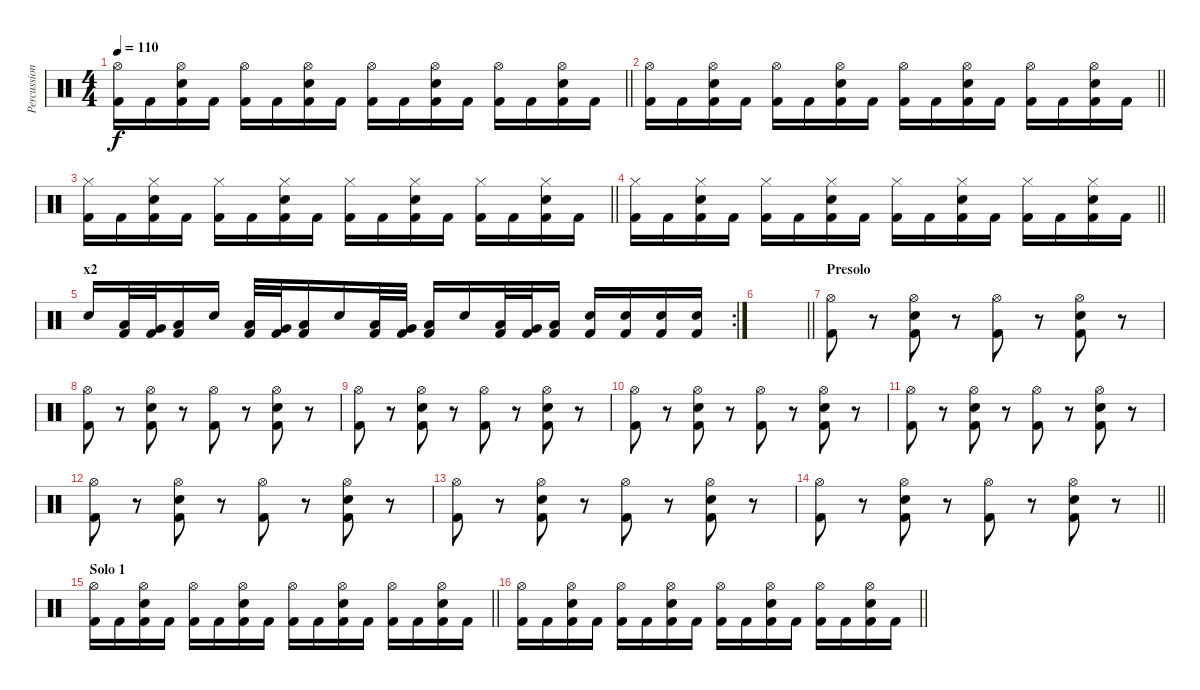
\track ("Percussion" "Percussion") {instrument percussion}
\staff {score}
\articulation defaults
\ts (4 4)
\tempo 110
\clef neutral
\barLineRight lightlight
\ks c
("Hi-Hat (open)" "Kick (hit) 2").16{dy f} "Kick (hit) 2".16 ("Hi-Hat (open)" "Electric Snare (hit)" "Kick (hit) 2").16 "Kick (hit) 2".16 ("Hi-Hat (open)" "Kick (hit) 2").16 "Kick (hit) 2".16 ("Hi-Hat (open)" "Electric Snare (hit)" "Kick (hit) 2").16 "Kick (hit) 2".16 ("Hi-Hat (open)" "Kick (hit) 2").16 "Kick (hit) 2".16 ("Hi-Hat (open)" "Electric Snare (hit)" "Kick (hit) 2").16 "Kick (hit) 2".16 ("Hi-Hat (open)" "Kick (hit) 2").16 "Kick (hit) 2".16 ("Hi-Hat (open)" "Electric Snare (hit)" "Kick (hit) 2").16 "Kick (hit) 2".16 |
\barLineRight lightlight
("Hi-Hat (open)" "Kick (hit) 2").16 "Kick (hit) 2".16 ("Hi-Hat (open)" "Electric Snare (hit)" "Kick (hit) 2").16 "Kick (hit) 2".16 ("Hi-Hat (open)" "Kick (hit) 2").16 "Kick (hit) 2".16 ("Hi-Hat (open)" "Electric Snare (hit)" "Kick (hit) 2").16 "Kick (hit) 2".16 ("Hi-Hat (open)" "Kick (hit) 2").16 "Kick (hit) 2".16 ("Hi-Hat (open)" "Electric Snare (hit)" "Kick (hit) 2").16 "Kick (hit) 2".16 ("Hi-Hat (open)" "Kick (hit) 2").16 "Kick (hit) 2".16 ("Hi-Hat (open)" "Electric Snare (hit)" "Kick (hit) 2").16 "Kick (hit) 2".16 |
\barLineRight lightlight
("Hi-Hat (closed)" "Kick (hit) 2").16 "Kick (hit) 2".16 ("Hi-Hat (closed)" "Electric Snare (hit)" "Kick (hit) 2").16 "Kick (hit) 2".16 ("Hi-Hat (closed)" "Kick (hit) 2").16 "Kick (hit) 2".16 ("Hi-Hat (closed)" "Electric Snare (hit)" "Kick (hit) 2").16 "Kick (hit) 2".16 ("Hi-Hat (closed)" "Kick (hit) 2").16 "Kick (hit) 2".16 ("Hi-Hat (closed)" "Electric Snare (hit)" "Kick (hit) 2").16 "Kick (hit) 2".16 ("Hi-Hat (closed)" "Kick (hit) 2").16 "Kick (hit) 2".16 ("Hi-Hat (closed)" "Electric Snare (hit)" "Kick (hit) 2").16 "Kick (hit) 2".16 |
\barLineRight lightlight
("Hi-Hat (closed)" "Kick (hit) 2").16 "Kick (hit) 2".16 ("Hi-Hat (closed)" "Electric Snare (hit)" "Kick (hit) 2").16 "Kick (hit) 2".16 ("Hi-Hat (closed)" "Kick (hit) 2").16 "Kick (hit) 2".16 ("Hi-Hat (closed)" "Electric Snare (hit)" "Kick (hit) 2").16 "Kick (hit) 2".16 ("Hi-Hat (closed)" "Kick (hit) 2").16 "Kick (hit) 2".16 ("Hi-Hat (closed)" "Electric Snare (hit)" "Kick (hit) 2").16 "Kick (hit) 2".16 ("Hi-Hat (closed)" "Kick (hit) 2").16 "Kick (hit) 2".16 ("Hi-Hat (closed)" "Electric Snare (hit)" "Kick (hit) 2").16 "Kick (hit) 2".16 |
\rc 2
\section ("" "x2")
"Electric Snare (hit)".16 ("Low Tom (hit)" "Kick (hit) 2").32 ("Very Low Tom (hit)" "Kick (hit) 2").32 ("Low Floor Tom (hit)" "Kick (hit) 2").16 "Electric Snare (hit)".16 ("Low Tom (hit)" "Kick (hit) 2").32 ("Very Low Tom (hit)" "Kick (hit) 2").32 ("Low Floor Tom (hit)" "Kick (hit) 2").16 "Electric Snare (hit)".16 ("Low Tom (hit)" "Kick (hit) 2").32 ("Very Low Tom (hit)" "Kick (hit) 2").32 ("Low Floor Tom (hit)" "Kick (hit) 2").16 "Electric Snare (hit)".16 ("Low Tom (hit)" "Kick (hit) 2").32 ("Very Low Tom (hit)" "Kick (hit) 2").32 ("Low Floor Tom (hit)" "Kick (hit) 2").16 ("Electric Snare (hit)" "Kick (hit) 2").16 ("Electric Snare (hit)" "Kick (hit) 2").16 ("Electric Snare (hit)" "Kick (hit) 2").16 ("Electric Snare (hit)" "Kick (hit) 2").16 |
\barLineRight lightlight
|
\section ("" "Presolo")
("Hi-Hat (open)" "Kick (hit) 2").8 r.8 ("Hi-Hat (open)" "Electric Snare (hit)" "Kick (hit) 2").8 r.8 ("Hi-Hat (open)" "Kick (hit) 2").8 r.8 ("Hi-Hat (open)" "Electric Snare (hit)" "Kick (hit) 2").8 r.8 |
("Hi-Hat (open)" "Kick (hit) 2").8 r.8 ("Hi-Hat (open)" "Electric Snare (hit)" "Kick (hit) 2").8 r.8 ("Hi-Hat (open)" "Kick (hit) 2").8 r.8 ("Hi-Hat (open)" "Electric Snare (hit)" "Kick (hit) 2").8 r.8 |
("Hi-Hat (open)" "Kick (hit) 2").8 r.8 ("Hi-Hat (open)" "Electric Snare (hit)" "Kick (hit) 2").8 r.8 ("Hi-Hat (open)" "Kick (hit) 2").8 r.8 ("Hi-Hat (open)" "Electric Snare (hit)" "Kick (hit) 2").8 r.8 |
("Hi-Hat (open)" "Kick (hit) 2").8 r.8 ("Hi-Hat (open)" "Electric Snare (hit)" "Kick (hit) 2").8 r.8 ("Hi-Hat (open)" "Kick (hit) 2").8 r.8 ("Hi-Hat (open)" "Electric Snare (hit)" "Kick (hit) 2").8 r.8 |
("Hi-Hat (open)" "Kick (hit) 2").8 r.8 ("Hi-Hat (open)" "Electric Snare (hit)" "Kick (hit) 2").8 r.8 ("Hi-Hat (open)" "Kick (hit) 2").8 r.8 ("Hi-Hat (open)" "Electric Snare (hit)" "Kick (hit) 2").8 r.8 |
("Hi-Hat (open)" "Kick (hit) 2").8 r.8 ("Hi-Hat (open)" "Electric Snare (hit)" "Kick (hit) 2").8 r.8 ("Hi-Hat (open)" "Kick (hit) 2").8 r.8 ("Hi-Hat (open)" "Electric Snare (hit)" "Kick (hit) 2").8 r.8 |
("Hi-Hat (open)" "Kick (hit) 2").8 r.8 ("Hi-Hat (open)" "Electric Snare (hit)" "Kick (hit) 2").8 r.8 ("Hi-Hat (open)" "Kick (hit) 2").8 r.8 ("Hi-Hat (open)" "Electric Snare (hit)" "Kick (hit) 2").8 r.8 |
\barLineRight lightlight
("Hi-Hat (open)" "Kick (hit) 2").8 r.8 ("Hi-Hat (open)" "Electric Snare (hit)" "Kick (hit) 2").8 r.8 ("Hi-Hat (open)" "Kick (hit) 2").8 r.8 ("Hi-Hat (open)" "Electric Snare (hit)" "Kick (hit) 2").8 r.8 |
\section ("" "Solo 1")
\barLineRight lightlight
("Hi-Hat (open)" "Kick (hit) 2").16 "Kick (hit) 2".16 ("Hi-Hat (open)" "Electric Snare (hit)" "Kick (hit) 2").16 "Kick (hit) 2".16 ("Hi-Hat (open)" "Kick (hit) 2").16 "Kick (hit) 2".16 ("Hi-Hat (open)" "Electric Snare (hit)" "Kick (hit) 2").16 "Kick (hit) 2".16 ("Hi-Hat (open)" "Kick (hit) 2").16 "Kick (hit) 2".16 ("Hi-Hat (open)" "Electric Snare (hit)" "Kick (hit) 2").16 "Kick (hit) 2".16 ("Hi-Hat (open)" "Kick (hit) 2").16 "Kick (hit) 2".16 ("Hi-Hat (open)" "Electric Snare (hit)" "Kick (hit) 2").16 "Kick (hit) 2".16 |
\barLineRight lightlight
("Hi-Hat (open)" "Kick (hit) 2").16 "Kick (hit) 2".16 ("Hi-Hat (open)" "Electric Snare (hit)" "Kick (hit) 2").16 "Kick (hit) 2".16 ("Hi-Hat (open)" "Kick (hit) 2").16 "Kick (hit) 2".16 ("Hi-Hat (open)" "Electric Snare (hit)" "Kick (hit) 2").16 "Kick (hit) 2".16 ("Hi-Hat (open)" "Kick (hit) 2").16 "Kick (hit) 2".16 ("Hi-Hat (open)" "Electric Snare (hit)" "Kick (hit) 2").16 "Kick (hit) 2".16 ("Hi-Hat (open)" "Kick (hit) 2").16 "Kick (hit) 2".16 ("Hi-Hat (open)" "Electric Snare (hit)" "Kick (hit) 2").16 "Kick (hit) 2".16
